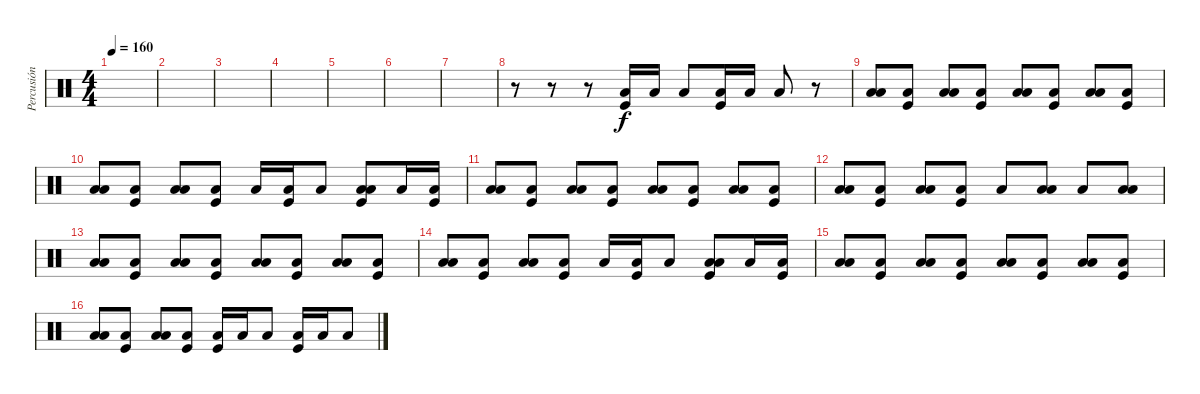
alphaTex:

\track ("Percusión" "Percusión") {instrument percussion}
\staff {score}
\articulation defaults
\ts (4 4)
\tempo 160
\clef neutral
\ks c
|
|
|
|
|
|
|
r.8 r.8 r.8 ("Low Tom (hit)" "Kick (hit)").16 "Low Tom (hit)".16 "Low Tom (hit)".8 ("Low Tom (hit)" "Kick (hit)").16 "Low Tom (hit)".16 "Low Tom (hit)".8 r.8 |
("Low Tom (hit)" "Low Floor Tom (hit)").8 ("Low Floor Tom (hit)" "Kick (hit)").8 ("Low Tom (hit)" "Low Floor Tom (hit)").8 ("Low Floor Tom (hit)" "Kick (hit)").8 ("Low Tom (hit)" "Low Floor Tom (hit)").8 ("Low Floor Tom (hit)" "Kick (hit)").8 ("Low Tom (hit)" "Low Floor Tom (hit)").8 ("Low Floor Tom (hit)" "Kick (hit)").8 |
("Low Tom (hit)" "Low Floor Tom (hit)").8 ("Low Floor Tom (hit)" "Kick (hit)").8 ("Low Tom (hit)" "Low Floor Tom (hit)").8 ("Low Floor Tom (hit)" "Kick (hit)").8 "Low Floor Tom (hit)".16 ("Low Tom (hit)" "Kick (hit)").16 "Low Floor Tom (hit)".8 ("Low Tom (hit)" "Low Floor Tom (hit)" "Kick (hit)").8 "Low Floor Tom (hit)".16 ("Low Tom (hit)" "Kick (hit)").16 |
("Low Tom (hit)" "Low Floor Tom (hit)").8 ("Low Floor Tom (hit)" "Kick (hit)").8 ("Low Tom (hit)" "Low Floor Tom (hit)").8 ("Low Floor Tom (hit)" "Kick (hit)").8 ("Low Tom (hit)" "Low Floor Tom (hit)").8 ("Low Floor Tom (hit)" "Kick (hit)").8 ("Low Tom (hit)" "Low Floor Tom (hit)").8 ("Low Floor Tom (hit)" "Kick (hit)").8 |
("Low Tom (hit)" "Low Floor Tom (hit)").8 ("Low Floor Tom (hit)" "Kick (hit)").8 ("Low Tom (hit)" "Low Floor Tom (hit)").8 ("Low Floor Tom (hit)" "Kick (hit)").8 "Low Floor Tom (hit)".8 ("Low Tom (hit)" "Low Floor Tom (hit)").8 "Low Floor Tom (hit)".8 ("Low Tom (hit)" "Low Floor Tom (hit)").8 |
("Low Tom (hit)" "Low Floor Tom (hit)").8 ("Low Floor Tom (hit)" "Kick (hit)").8 ("Low Tom (hit)" "Low Floor Tom (hit)").8 ("Low Floor Tom (hit)" "Kick (hit)").8 ("Low Tom (hit)" "Low Floor Tom (hit)").8 ("Low Floor Tom (hit)" "Kick (hit)").8 ("Low Tom (hit)" "Low Floor Tom (hit)").8 ("Low Floor Tom (hit)" "Kick (hit)").8 |
("Low Tom (hit)" "Low Floor Tom (hit)").8 ("Low Floor Tom (hit)" "Kick (hit)").8 ("Low Tom (hit)" "Low Floor Tom (hit)").8 ("Low Floor Tom (hit)" "Kick (hit)").8 "Low Floor Tom (hit)".16 ("Low Tom (hit)" "Kick (hit)").16 "Low Floor Tom (hit)".8 ("Low Tom (hit)" "Low Floor Tom (hit)" "Kick (hit)").8 "Low Floor Tom (hit)".16 ("Low Tom (hit)" "Kick (hit)").16 |
("Low Tom (hit)" "Low Floor Tom (hit)").8 ("Low Floor Tom (hit)" "Kick (hit)").8 ("Low Tom (hit)" "Low Floor Tom (hit)").8 ("Low Floor Tom (hit)" "Kick (hit)").8 ("Low Tom (hit)" "Low Floor Tom (hit)").8 ("Low Floor Tom (hit)" "Kick (hit)").8 ("Low Tom (hit)" "Low Floor Tom (hit)").8 ("Low Floor Tom (hit)" "Kick (hit)").8 |
("Low Tom (hit)" "Low Floor Tom (hit)").8 ("Low Floor Tom (hit)" "Kick (hit)").8 ("Low Tom (hit)" "Low Floor Tom (hit)").8 ("Low Floor Tom (hit)" "Kick (hit)").8 ("Low Tom (hit)" "Kick (hit)").16 "Low Tom (hit)".16 "Low Tom (hit)".8 ("Low Tom (hit)" "Kick (hit)").16 "Low Tom (hit)".16 "Low Tom (hit)".8
